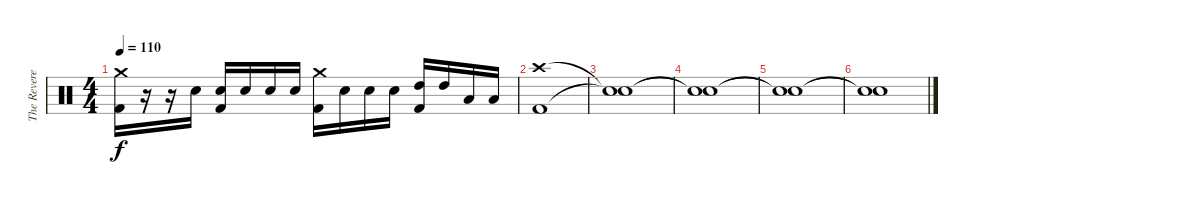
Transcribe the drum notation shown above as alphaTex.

\track ("The Reverend" "The Revere") {instrument percussion}
\staff {score}
\articulation defaults
\ts (4 4)
\tempo 110
\clef neutral
\ks c
("Crash medium (hit)" "Kick (hit) 2").16{dy f} r.16 r.16 "Electric Snare (hit)".16 ("Electric Snare (hit)" "Kick (hit) 2").16 "Electric Snare (hit)".16 "Electric Snare (hit)".16 "Electric Snare (hit)".16 ("Crash medium (hit)" "Kick (hit) 2").16 "Electric Snare (hit)".16 "Electric Snare (hit)".16 "Electric Snare (hit)".16 ("High Tom (hit)" "Kick (hit) 2").16 "High Tom (hit)".16 "Low Tom (hit)".16 "Low Tom (hit)".16 |
("Crash high (hit)" "Kick (hit) 2").1 |
("Snare (hit)"{t} "Snare (hit)"{t}).1 |
("Snare (hit)"{t} "Snare (hit)"{t}).1 |
("Snare (hit)"{t} "Snare (hit)"{t}).1 |
("Snare (hit)"{t} "Snare (hit)"{t}).1
